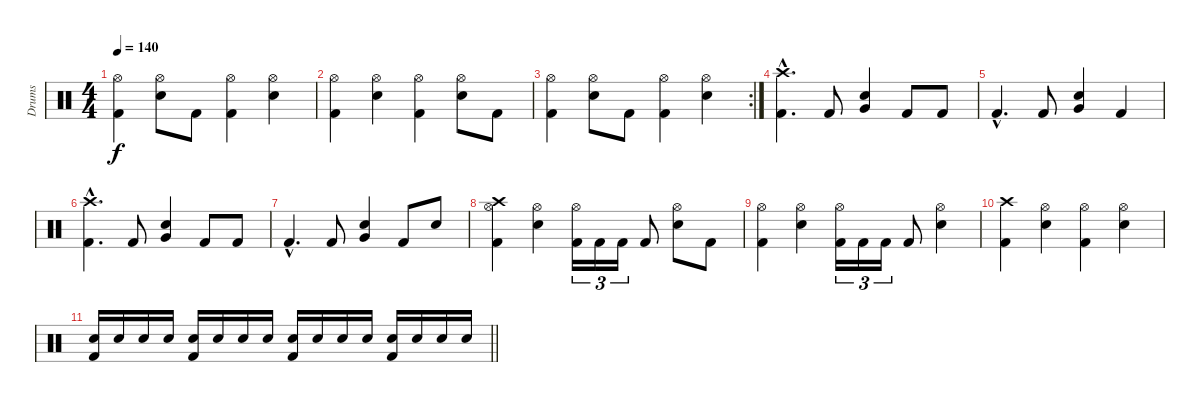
\track ("Drums" "Drums") {instrument percussion}
\staff {score}
\articulation defaults
\ts (4 4)
\tempo 140
\clef neutral
\ks c
("Hi-Hat (open)" "Kick (hit) 2").4{dy f} ("Hi-Hat (open)" "Electric Snare (hit)").8 "Kick (hit) 2".8 ("Hi-Hat (open)" "Kick (hit) 2").4 ("Hi-Hat (open)" "Electric Snare (hit)").4 |
("Hi-Hat (open)" "Kick (hit) 2").4 ("Hi-Hat (open)" "Electric Snare (hit)").4 ("Hi-Hat (open)" "Kick (hit) 2").4 ("Hi-Hat (open)" "Electric Snare (hit)").8 "Kick (hit) 2".8 |
\rc 2
("Hi-Hat (open)" "Kick (hit) 2").4 ("Hi-Hat (open)" "Electric Snare (hit)").8 "Kick (hit) 2".8 ("Hi-Hat (open)" "Kick (hit) 2").4 ("Hi-Hat (open)" "Electric Snare (hit)").4 |
("Crash high (hit)"{hac} "Kick (hit) 2"{hac}).4{d} "Kick (hit) 2".8 ("Very Low Tom (hit)" "Electric Snare (hit)").4 "Kick (hit) 2".8 "Kick (hit) 2".8 |
"Kick (hit) 2"{hac}.4{d} "Kick (hit) 2".8 ("Very Low Tom (hit)" "Electric Snare (hit)").4 "Kick (hit) 2".4 |
("Crash high (hit)"{hac} "Kick (hit) 2"{hac}).4{d} "Kick (hit) 2".8 ("Very Low Tom (hit)" "Electric Snare (hit)").4 "Kick (hit) 2".8 "Kick (hit) 2".8 |
"Kick (hit) 2"{hac}.4{d} "Kick (hit) 2".8 ("Very Low Tom (hit)" "Electric Snare (hit)").4 "Kick (hit) 2".8 "Electric Snare (hit)".8 |
("Crash high (hit)" "Hi-Hat (open)" "Kick (hit) 2").4 ("Hi-Hat (open)" "Electric Snare (hit)").4 ("Hi-Hat (open)" "Kick (hit) 2").16{tu (3 2)} "Kick (hit) 2".16{tu (3 2)} "Kick (hit) 2".16{tu (3 2)} "Kick (hit) 2".8 ("Hi-Hat (open)" "Electric Snare (hit)").8 "Kick (hit) 2".8 |
("Hi-Hat (open)" "Kick (hit) 2").4 ("Hi-Hat (open)" "Electric Snare (hit)").4 ("Hi-Hat (open)" "Kick (hit) 2").16{tu (3 2)} "Kick (hit) 2".16{tu (3 2)} "Kick (hit) 2".16{tu (3 2)} "Kick (hit) 2".8 ("Hi-Hat (open)" "Electric Snare (hit)").4 |
("Crash high (hit)" "Kick (hit) 2").4 ("Hi-Hat (open)" "Electric Snare (hit)").4 ("Hi-Hat (open)" "Kick (hit) 2").4 ("Hi-Hat (open)" "Electric Snare (hit)").4 |
\barLineRight lightlight
("Electric Snare (hit)" "Kick (hit) 2").16 "Electric Snare (hit)".16 "Electric Snare (hit)".16 "Electric Snare (hit)".16 ("Electric Snare (hit)" "Kick (hit) 2").16 "Electric Snare (hit)".16 "Electric Snare (hit)".16 "Electric Snare (hit)".16 ("Electric Snare (hit)" "Kick (hit) 2").16 "Electric Snare (hit)".16 "Electric Snare (hit)".16 "Electric Snare (hit)".16 ("Electric Snare (hit)" "Kick (hit) 2").16 "Electric Snare (hit)".16 "Electric Snare (hit)".16 "Electric Snare (hit)".16
